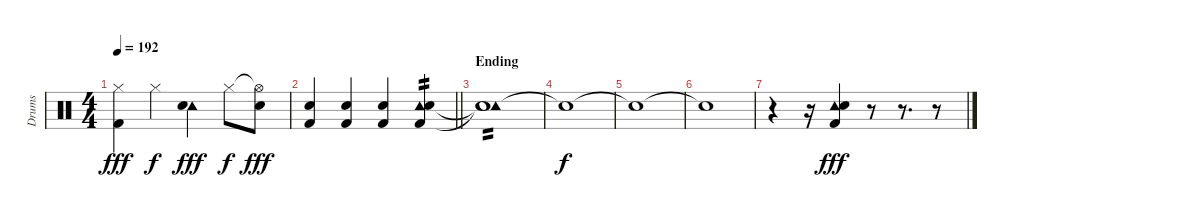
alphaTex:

\track ("Drums" "Drums") {instrument percussion}
\staff {score}
\articulation defaults
\ts (4 4)
\tempo 192
\clef neutral
\ks c
("Hi-Hat (closed)" "Kick (hit) 2").4{dy fff} "Hi-Hat (closed)".4{dy f} ("Tambourine (hit)" "Snare (hit) 2").4{dy fff} "Hi-Hat (closed)".8{dy f} ("Hi-Hat (open)"{t} "Snare (hit) 2").8{dy fff} |
\barLineRight lightlight
("Snare (hit) 2" "Kick (hit) 2").4 ("Snare (hit) 2" "Kick (hit) 2").4 ("Snare (hit) 2" "Kick (hit) 2").4 ("Tambourine (hit)" "Snare (hit) 2" "Kick (hit) 2").4{tp 2 volume 4} |
\section ("" "Ending")
("Tambourine (hit)" "Snare (hit)"{t} "Snare (hit)"{t}).1{tp 2 volume 2} |
"Snare (hit)"{t}.1{dy f} |
"Snare (hit)"{t}.1 |
"Snare (hit)"{t}.1 |
r.4 r.16 ("Tambourine (hit)" "Snare (hit) 2" "Kick (hit) 2").4{dy fff} r.8 r.8{d} r.8
